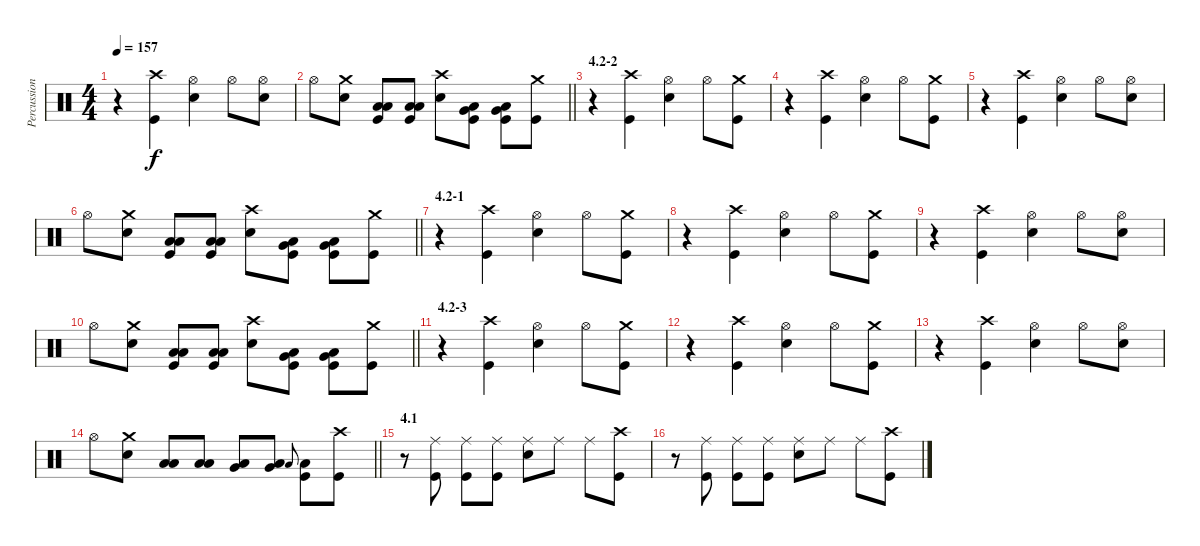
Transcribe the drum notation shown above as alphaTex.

\track ("Percussion" "Percussion") {instrument percussion}
\staff {score}
\articulation defaults
\ts (4 4)
\tempo 157
\clef neutral
\ks c
r.4{dy f} ("Crash high (hit)" "Kick (hit)").4 ("Hi-Hat (open)" "Snare (hit) 2").4 "Hi-Hat (open)".8 ("Hi-Hat (open)" "Snare (hit) 2").8 |
\barLineRight lightlight "Hi-Hat (open)".8
("Crash medium (hit)" "Snare (hit) 2").8 ("Low Tom (hit)" "Low Floor Tom (hit)" "Kick (hit)").8 ("Low Tom (hit)" "Low Floor Tom (hit)" "Kick (hit)").8 ("Crash high (hit)" "Snare (hit) 2").8 ("Very Low Tom (hit)" "Low Floor Tom (hit)" "Kick (hit)").8 ("Very Low Tom (hit)" "Low Floor Tom (hit)" "Kick (hit)").8 ("Crash medium (hit)" "Kick (hit)").8 |
\section ("" "4.2-2")
r.4 ("Crash high (hit)" "Kick (hit)").4 ("Hi-Hat (open)" "Snare (hit) 2").4 "Hi-Hat (open)".8 ("Crash medium (hit)" "Kick (hit)").8 |
r.4 ("Crash high (hit)" "Kick (hit)").4 ("Hi-Hat (open)" "Snare (hit) 2").4 "Hi-Hat (open)".8 ("Crash medium (hit)" "Kick (hit)").8 |
r.4 ("Crash high (hit)" "Kick (hit)").4 ("Hi-Hat (open)" "Snare (hit) 2").4 "Hi-Hat (open)".8 ("Hi-Hat (open)" "Snare (hit) 2").8 |
\barLineRight lightlight "Hi-Hat (open)".8
("Crash medium (hit)" "Snare (hit) 2").8 ("Low Tom (hit)" "Low Floor Tom (hit)" "Kick (hit)").8 ("Low Tom (hit)" "Low Floor Tom (hit)" "Kick (hit)").8 ("Crash high (hit)" "Snare (hit) 2").8 ("Very Low Tom (hit)" "Low Floor Tom (hit)" "Kick (hit)").8 ("Very Low Tom (hit)" "Low Floor Tom (hit)" "Kick (hit)").8 ("Crash medium (hit)" "Kick (hit)").8 |
\section ("" "4.2-1")
r.4 ("Crash high (hit)" "Kick (hit)").4 ("Hi-Hat (open)" "Snare (hit) 2").4 "Hi-Hat (open)".8 ("Crash medium (hit)" "Kick (hit)").8 |
r.4 ("Crash high (hit)" "Kick (hit)").4 ("Hi-Hat (open)" "Snare (hit) 2").4 "Hi-Hat (open)".8 ("Crash medium (hit)" "Kick (hit)").8 |
r.4 ("Crash high (hit)" "Kick (hit)").4 ("Hi-Hat (open)" "Snare (hit) 2").4 "Hi-Hat (open)".8 ("Hi-Hat (open)" "Snare (hit) 2").8 |
\barLineRight lightlight "Hi-Hat (open)".8
("Crash medium (hit)" "Snare (hit) 2").8 ("Low Tom (hit)" "Low Floor Tom (hit)" "Kick (hit)").8 ("Low Tom (hit)" "Low Floor Tom (hit)" "Kick (hit)").8 ("Crash high (hit)" "Snare (hit) 2").8 ("Very Low Tom (hit)" "Low Floor Tom (hit)" "Kick (hit)").8 ("Very Low Tom (hit)" "Low Floor Tom (hit)" "Kick (hit)").8 ("Crash medium (hit)" "Kick (hit)").8 |
\section ("" "4.2-3")
r.4 ("Crash high (hit)" "Kick (hit)").4 ("Hi-Hat (open)" "Snare (hit) 2").4 "Hi-Hat (open)".8 ("Crash medium (hit)" "Kick (hit)").8 |
r.4 ("Crash high (hit)" "Kick (hit)").4 ("Hi-Hat (open)" "Snare (hit) 2").4 "Hi-Hat (open)".8 ("Crash medium (hit)" "Kick (hit)").8 |
r.4 ("Crash high (hit)" "Kick (hit)").4 ("Hi-Hat (open)" "Snare (hit) 2").4 "Hi-Hat (open)".8 ("Hi-Hat (open)" "Snare (hit) 2").8 |
\barLineRight lightlight "Hi-Hat (open)".8
("Crash medium (hit)" "Snare (hit) 2").8 ("Low Tom (hit)" "Low Floor Tom (hit)").8 ("Low Tom (hit)" "Low Floor Tom (hit)").8 ("Very Low Tom (hit)" "Low Floor Tom (hit)").8 ("Very Low Tom (hit)" "Low Floor Tom (hit)").8 "Low Floor Tom (hit)".8{gr onbeat} ("Low Floor Tom (hit)" "Kick (hit)").8 ("Crash high (hit)" "Kick (hit)").8 |
\section ("" "4.1")
r.8 ("Ride (middle)" "Kick (hit)").8 ("Ride (middle)" "Kick (hit)").8 ("Ride (middle)" "Kick (hit)").8 ("Ride (middle)" "Snare (hit) 2").8 "Ride (middle)".8 "Ride (middle)".8 ("Crash high (hit)" "Kick (hit)").8 |
r.8 ("Ride (middle)" "Kick (hit)").8 ("Ride (middle)" "Kick (hit)").8 ("Ride (middle)" "Kick (hit)").8 ("Ride (middle)" "Snare (hit) 2").8 "Ride (middle)".8 "Ride (middle)".8 ("Crash high (hit)" "Kick (hit)").8
